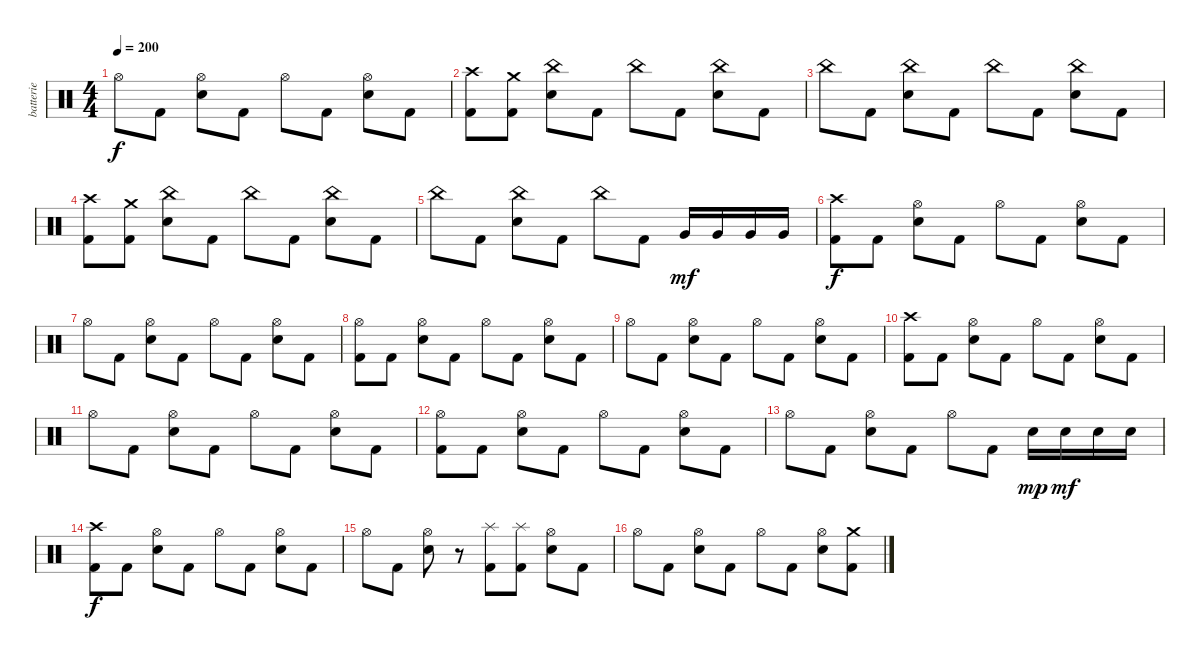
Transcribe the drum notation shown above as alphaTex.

\track ("batterie" "batterie") {instrument percussion}
\staff {score}
\articulation defaults
\ts (4 4)
\tempo 200
\clef neutral
\ks c "Hi-Hat (open)".8{dy f} "Kick (hit) 2".8
("Electric Snare (hit)" "Hi-Hat (open)").8 "Kick (hit) 2".8 "Hi-Hat (open)".8 "Kick (hit) 2".8 ("Electric Snare (hit)" "Hi-Hat (open)").8 "Kick (hit) 2".8 |
("Kick (hit) 2" "Crash high (hit)").8 ("Kick (hit) 2" "Crash medium (hit)").8 ("Electric Snare (hit)" "China (hit)").8 "Kick (hit) 2".8 "China (hit)".8 "Kick (hit) 2".8 ("Electric Snare (hit)" "China (hit)").8 "Kick (hit) 2".8 |
"China (hit)".8 "Kick (hit) 2".8 ("Electric Snare (hit)" "China (hit)").8 "Kick (hit) 2".8 "China (hit)".8 "Kick (hit) 2".8 ("Electric Snare (hit)" "China (hit)").8 "Kick (hit) 2".8 |
("Kick (hit) 2" "Crash high (hit)").8 ("Kick (hit) 2" "Crash medium (hit)").8 ("Electric Snare (hit)" "China (hit)").8 "Kick (hit) 2".8 "China (hit)".8 "Kick (hit) 2".8 ("Electric Snare (hit)" "China (hit)").8 "Kick (hit) 2".8 |
"China (hit)".8 "Kick (hit) 2".8 ("Electric Snare (hit)" "China (hit)").8 "Kick (hit) 2".8 "China (hit)".8 "Kick (hit) 2".8 "Very Low Tom (hit)".16{dy mf} "Very Low Tom (hit)".16 "Very Low Tom (hit)".16 "Very Low Tom (hit)".16 |
("Kick (hit) 2" "Crash high (hit)").8{dy f} "Kick (hit) 2".8 ("Electric Snare (hit)" "Hi-Hat (open)").8 "Kick (hit) 2".8 "Hi-Hat (open)".8 "Kick (hit) 2".8 ("Electric Snare (hit)" "Hi-Hat (open)").8 "Kick (hit) 2".8 |
"Hi-Hat (open)".8 "Kick (hit) 2".8 ("Electric Snare (hit)" "Hi-Hat (open)").8 "Kick (hit) 2".8 "Hi-Hat (open)".8 "Kick (hit) 2".8 ("Electric Snare (hit)" "Hi-Hat (open)").8 "Kick (hit) 2".8 |
("Kick (hit) 2" "Hi-Hat (open)").8 "Kick (hit) 2".8 ("Electric Snare (hit)" "Hi-Hat (open)").8 "Kick (hit) 2".8 "Hi-Hat (open)".8 "Kick (hit) 2".8 ("Electric Snare (hit)" "Hi-Hat (open)").8 "Kick (hit) 2".8 |
"Hi-Hat (open)".8 "Kick (hit) 2".8 ("Electric Snare (hit)" "Hi-Hat (open)").8 "Kick (hit) 2".8 "Hi-Hat (open)".8 "Kick (hit) 2".8 ("Electric Snare (hit)" "Hi-Hat (open)").8 "Kick (hit) 2".8 |
("Kick (hit) 2" "Crash high (hit)").8 "Kick (hit) 2".8 ("Electric Snare (hit)" "Hi-Hat (open)").8 "Kick (hit) 2".8 "Hi-Hat (open)".8 "Kick (hit) 2".8 ("Electric Snare (hit)" "Hi-Hat (open)").8 "Kick (hit) 2".8 |
"Hi-Hat (open)".8 "Kick (hit) 2".8 ("Electric Snare (hit)" "Hi-Hat (open)").8 "Kick (hit) 2".8 "Hi-Hat (open)".8 "Kick (hit) 2".8 ("Electric Snare (hit)" "Hi-Hat (open)").8 "Kick (hit) 2".8 |
("Kick (hit) 2" "Hi-Hat (open)").8 "Kick (hit) 2".8 ("Electric Snare (hit)" "Hi-Hat (open)").8 "Kick (hit) 2".8 "Hi-Hat (open)".8 "Kick (hit) 2".8 ("Electric Snare (hit)" "Hi-Hat (open)").8 "Kick (hit) 2".8 |
"Hi-Hat (open)".8 "Kick (hit) 2".8 ("Electric Snare (hit)" "Hi-Hat (open)").8 "Kick (hit) 2".8 "Hi-Hat (open)".8 "Kick (hit) 2".8 "Electric Snare (hit)".16{dy mp} "Electric Snare (hit)".16{dy mf} "Electric Snare (hit)".16 "Electric Snare (hit)".16 |
("Kick (hit) 2" "Crash high (hit)").8{dy f} "Kick (hit) 2".8 ("Electric Snare (hit)" "Hi-Hat (open)").8 "Kick (hit) 2".8 "Hi-Hat (open)".8 "Kick (hit) 2".8 ("Electric Snare (hit)" "Hi-Hat (open)").8 "Kick (hit) 2".8 |
"Hi-Hat (open)".8 "Kick (hit) 2".8 ("Electric Snare (hit)" "Hi-Hat (open)").8 r.8 ("Kick (hit) 2" "Splash (hit)").8 ("Kick (hit) 2" "Splash (hit)").8 ("Electric Snare (hit)" "Hi-Hat (open)").8 "Kick (hit) 2".8 |
"Hi-Hat (open)".8 "Kick (hit) 2".8 ("Electric Snare (hit)" "Hi-Hat (open)").8 "Kick (hit) 2".8 "Hi-Hat (open)".8 "Kick (hit) 2".8 ("Electric Snare (hit)" "Hi-Hat (open)").8 ("Kick (hit) 2" "Crash medium (hit)").8
